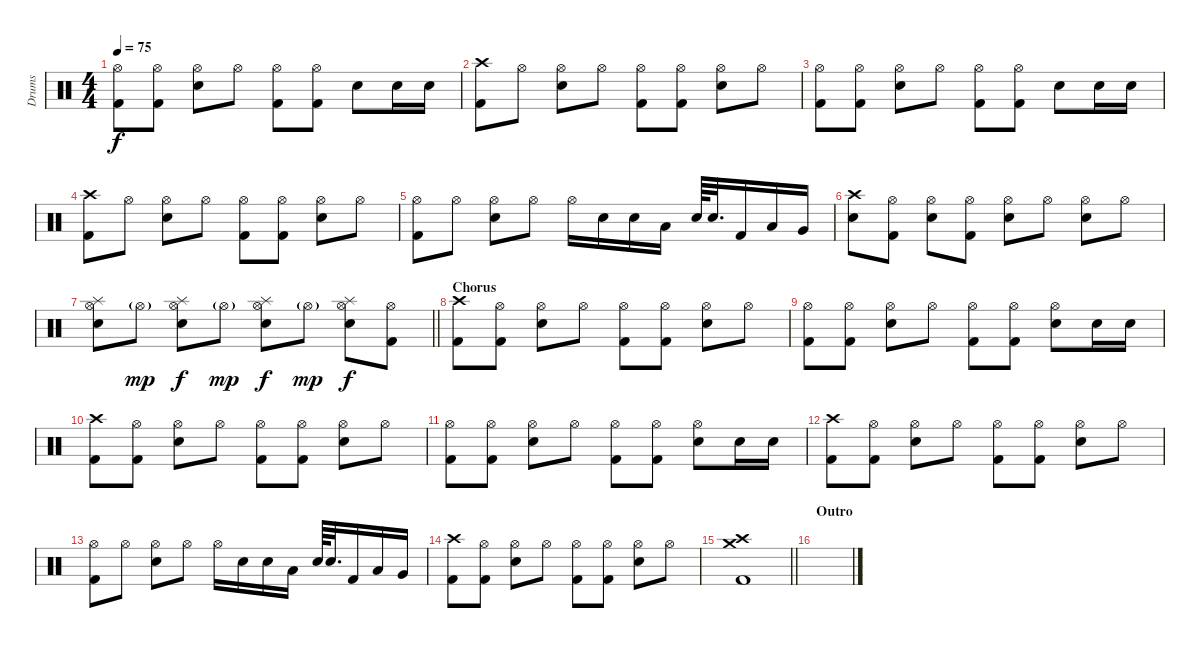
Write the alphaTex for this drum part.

\track ("Drums" "Drums") {instrument percussion}
\staff {score}
\articulation defaults
\ts (4 4)
\tempo 75
\clef neutral
\ks c
("Hi-Hat (open)" "Kick (hit) 2").8{dy f} ("Hi-Hat (open)" "Kick (hit) 2").8 ("Hi-Hat (open)" "Snare (hit) 2").8 "Hi-Hat (open)".8 ("Hi-Hat (open)" "Kick (hit) 2").8 ("Hi-Hat (open)" "Kick (hit) 2").8 "Snare (hit) 2".8 "Snare (hit) 2".16 "Snare (hit) 2".16 |
("Crash high (hit)" "Kick (hit) 2").8 "Hi-Hat (open)".8 ("Hi-Hat (open)" "Snare (hit) 2").8 "Hi-Hat (open)".8 ("Hi-Hat (open)" "Kick (hit) 2").8 ("Hi-Hat (open)" "Kick (hit) 2").8 ("Hi-Hat (open)" "Snare (hit) 2").8 "Hi-Hat (open)".8 |
("Hi-Hat (open)" "Kick (hit) 2").8 ("Hi-Hat (open)" "Kick (hit) 2").8 ("Hi-Hat (open)" "Snare (hit) 2").8 "Hi-Hat (open)".8 ("Hi-Hat (open)" "Kick (hit) 2").8 ("Hi-Hat (open)" "Kick (hit) 2").8 "Snare (hit) 2".8 "Snare (hit) 2".16 "Snare (hit) 2".16 |
("Crash high (hit)" "Kick (hit) 2").8 "Hi-Hat (open)".8 ("Hi-Hat (open)" "Snare (hit) 2").8 "Hi-Hat (open)".8 ("Hi-Hat (open)" "Kick (hit) 2").8 ("Hi-Hat (open)" "Kick (hit) 2").8 ("Hi-Hat (open)" "Snare (hit) 2").8 "Hi-Hat (open)".8 |
("Hi-Hat (open)" "Kick (hit) 2").8 "Hi-Hat (open)".8 ("Hi-Hat (open)" "Snare (hit) 2").8 "Hi-Hat (open)".8 "Hi-Hat (open)".16 "Snare (hit) 2".16 "Snare (hit) 2".16 "Low Tom (hit)".16 "Snare (hit) 2".64 "Snare (hit) 2".32{d} "Kick (hit) 2".16 "Low Tom (hit)".16 "Very Low Tom (hit)".16 |
("Crash high (hit)" "Snare (hit) 2").8 ("Hi-Hat (open)" "Kick (hit) 2").8 ("Hi-Hat (open)" "Snare (hit) 2").8 ("Hi-Hat (open)" "Kick (hit) 2").8 ("Hi-Hat (open)" "Snare (hit) 2").8 "Hi-Hat (open)".8 ("Hi-Hat (open)" "Snare (hit) 2").8 "Hi-Hat (open)".8 |
\barLineRight lightlight
("Hi-Hat (open)" "Splash (hit)" "Snare (hit) 2").8 "Hi-Hat (open)"{g}.8{dy mp} ("Hi-Hat (open)" "Splash (hit)" "Snare (hit) 2").8{dy f} "Hi-Hat (open)"{g}.8{dy mp} ("Hi-Hat (open)" "Splash (hit)" "Snare (hit) 2").8{dy f} "Hi-Hat (open)"{g}.8{dy mp} ("Hi-Hat (open)" "Splash (hit)" "Snare (hit) 2").8{dy f} ("Hi-Hat (open)" "Kick (hit) 2").8 |
\section ("" "Chorus")
("Crash high (hit)" "Kick (hit) 2").8 ("Hi-Hat (open)" "Kick (hit) 2").8 ("Hi-Hat (open)" "Snare (hit) 2").8 "Hi-Hat (open)".8 ("Hi-Hat (open)" "Kick (hit) 2").8 ("Hi-Hat (open)" "Kick (hit) 2").8 ("Hi-Hat (open)" "Snare (hit) 2").8 "Hi-Hat (open)".8 |
("Hi-Hat (open)" "Kick (hit) 2").8 ("Hi-Hat (open)" "Kick (hit) 2").8 ("Hi-Hat (open)" "Snare (hit) 2").8 "Hi-Hat (open)".8 ("Hi-Hat (open)" "Kick (hit) 2").8 ("Hi-Hat (open)" "Kick (hit) 2").8 ("Hi-Hat (open)" "Snare (hit) 2").8 "Snare (hit) 2".16 "Snare (hit) 2".16 |
("Crash high (hit)" "Kick (hit) 2").8 ("Hi-Hat (open)" "Kick (hit) 2").8 ("Hi-Hat (open)" "Snare (hit) 2").8 "Hi-Hat (open)".8 ("Hi-Hat (open)" "Kick (hit) 2").8 ("Hi-Hat (open)" "Kick (hit) 2").8 ("Hi-Hat (open)" "Snare (hit) 2").8 "Hi-Hat (open)".8 |
("Hi-Hat (open)" "Kick (hit) 2").8 ("Hi-Hat (open)" "Kick (hit) 2").8 ("Hi-Hat (open)" "Snare (hit) 2").8 "Hi-Hat (open)".8 ("Hi-Hat (open)" "Kick (hit) 2").8 ("Hi-Hat (open)" "Kick (hit) 2").8 ("Hi-Hat (open)" "Snare (hit) 2").8 "Snare (hit) 2".16 "Snare (hit) 2".16 |
("Crash high (hit)" "Kick (hit) 2").8 ("Hi-Hat (open)" "Kick (hit) 2").8 ("Hi-Hat (open)" "Snare (hit) 2").8 "Hi-Hat (open)".8 ("Hi-Hat (open)" "Kick (hit) 2").8 ("Hi-Hat (open)" "Kick (hit) 2").8 ("Hi-Hat (open)" "Snare (hit) 2").8 "Hi-Hat (open)".8 |
("Hi-Hat (open)" "Kick (hit) 2").8 "Hi-Hat (open)".8 ("Hi-Hat (open)" "Snare (hit) 2").8 "Hi-Hat (open)".8 "Hi-Hat (open)".16 "Snare (hit) 2".16 "Snare (hit) 2".16 "Low Tom (hit)".16 "Snare (hit) 2".64 "Snare (hit) 2".32{d} "Kick (hit) 2".16 "Low Tom (hit)".16 "Very Low Tom (hit)".16 |
("Crash high (hit)" "Kick (hit) 2").8 ("Hi-Hat (open)" "Kick (hit) 2").8 ("Hi-Hat (open)" "Snare (hit) 2").8 "Hi-Hat (open)".8 ("Hi-Hat (open)" "Kick (hit) 2").8 ("Hi-Hat (open)" "Kick (hit) 2").8 ("Hi-Hat (open)" "Snare (hit) 2").8 "Hi-Hat (open)".8 |
\barLineRight lightlight
("Crash high (hit)" "Crash medium (hit)" "Kick (hit) 2").1 |
\section ("" "Outro")
